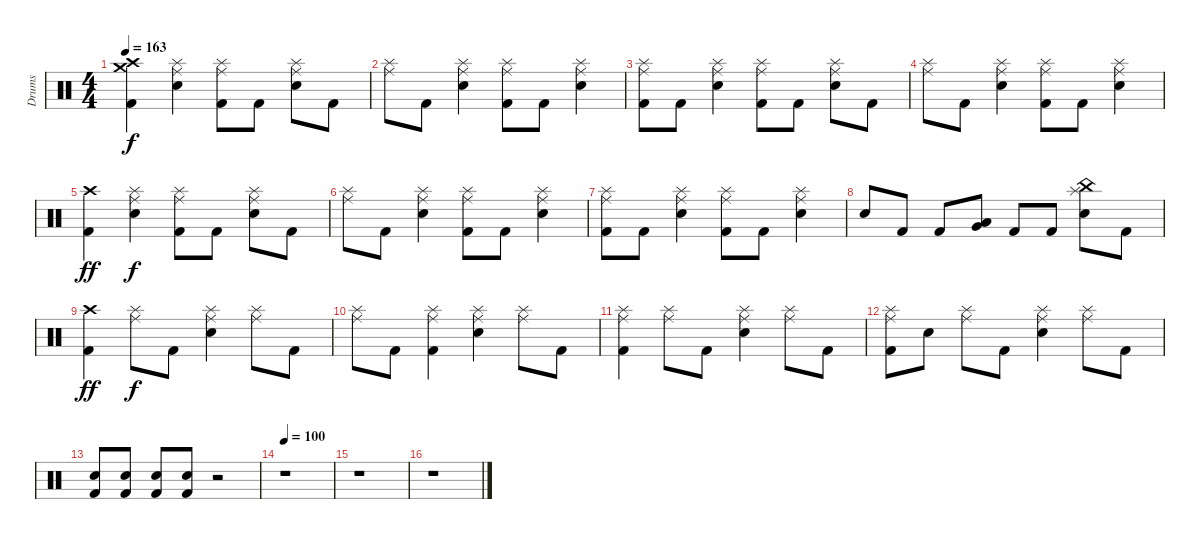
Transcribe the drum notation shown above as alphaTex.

\track ("Drums" "Drums") {instrument percussion}
\staff {score}
\articulation defaults
\ts (4 4)
\tempo 163
\clef neutral
\ks c
("Crash high (hit)" "Crash medium (hit)" "Kick (hit) 2").4{dy f} ("Splash (hit)" "Ride (middle)" "Electric Snare (hit)").4 ("Splash (hit)" "Ride (middle)" "Kick (hit) 2").8 "Kick (hit) 2".8 ("Splash (hit)" "Ride (middle)" "Electric Snare (hit)").8 "Kick (hit) 2".8 |
("Splash (hit)" "Ride (middle)").8 "Kick (hit) 2".8 ("Splash (hit)" "Ride (middle)" "Electric Snare (hit)").4 ("Splash (hit)" "Ride (middle)" "Kick (hit) 2").8 "Kick (hit) 2".8 ("Splash (hit)" "Ride (middle)" "Electric Snare (hit)").4 |
("Splash (hit)" "Ride (middle)" "Kick (hit) 2").8 "Kick (hit) 2".8 ("Splash (hit)" "Ride (middle)" "Electric Snare (hit)").4 ("Splash (hit)" "Ride (middle)" "Kick (hit) 2").8 "Kick (hit) 2".8 ("Splash (hit)" "Ride (middle)" "Electric Snare (hit)").8 "Kick (hit) 2".8 |
("Splash (hit)" "Ride (middle)").8 "Kick (hit) 2".8 ("Splash (hit)" "Ride (middle)" "Electric Snare (hit)").4 ("Splash (hit)" "Ride (middle)" "Kick (hit) 2").8 "Kick (hit) 2".8 ("Splash (hit)" "Ride (middle)" "Electric Snare (hit)").4 |
("Crash high (hit)" "Kick (hit) 2").4{dy ff} ("Splash (hit)" "Ride (middle)" "Electric Snare (hit)").4{dy f} ("Splash (hit)" "Ride (middle)" "Kick (hit) 2").8 "Kick (hit) 2".8 ("Splash (hit)" "Ride (middle)" "Electric Snare (hit)").8 "Kick (hit) 2".8 |
("Splash (hit)" "Ride (middle)").8 "Kick (hit) 2".8 ("Splash (hit)" "Ride (middle)" "Electric Snare (hit)").4 ("Splash (hit)" "Ride (middle)" "Kick (hit) 2").8 "Kick (hit) 2".8 ("Splash (hit)" "Ride (middle)" "Electric Snare (hit)").4 |
("Splash (hit)" "Ride (middle)" "Kick (hit) 2").8 "Kick (hit) 2".8 ("Splash (hit)" "Ride (middle)" "Electric Snare (hit)").4 ("Splash (hit)" "Ride (middle)" "Kick (hit) 2").8 "Kick (hit) 2".8 ("Splash (hit)" "Ride (middle)" "Electric Snare (hit)").4 |
"Electric Snare (hit)".8 "Kick (hit) 2".8 "Kick (hit) 2".8 ("Low Tom (hit)" "Very Low Tom (hit)").8 "Kick (hit) 2".8 "Kick (hit) 2".8 ("China (hit)" "Splash (hit)" "Electric Snare (hit)").8 "Kick (hit) 2".8 |
("Crash high (hit)" "Kick (hit) 2").4{dy ff} ("Splash (hit)" "Ride (middle)").8{dy f} "Kick (hit) 2".8 ("Splash (hit)" "Ride (middle)" "Electric Snare (hit)").4 ("Splash (hit)" "Ride (middle)").8 "Kick (hit) 2".8 |
("Splash (hit)" "Ride (middle)").8 "Kick (hit) 2".8 ("Splash (hit)" "Ride (middle)" "Kick (hit) 2").4 ("Splash (hit)" "Ride (middle)" "Electric Snare (hit)").4 ("Splash (hit)" "Ride (middle)").8 "Kick (hit) 2".8 |
("Splash (hit)" "Ride (middle)" "Kick (hit) 2").4 ("Splash (hit)" "Ride (middle)").8 "Kick (hit) 2".8 ("Splash (hit)" "Ride (middle)" "Electric Snare (hit)").4 ("Splash (hit)" "Ride (middle)").8 "Kick (hit) 2".8 |
("Splash (hit)" "Ride (middle)" "Kick (hit) 2").8 "Electric Snare (hit)".8 ("Splash (hit)" "Ride (middle)").8 "Kick (hit) 2".8 ("Splash (hit)" "Ride (middle)" "Electric Snare (hit)").4 ("Splash (hit)" "Ride (middle)").8 "Kick (hit) 2".8 |
("Electric Snare (hit)" "Kick (hit) 2").8 ("Electric Snare (hit)" "Kick (hit) 2").8 ("Electric Snare (hit)" "Kick (hit) 2").8 ("Electric Snare (hit)" "Kick (hit) 2").8 r.2 |
\tempo 100
r.1 |
r.1 |
r.1
